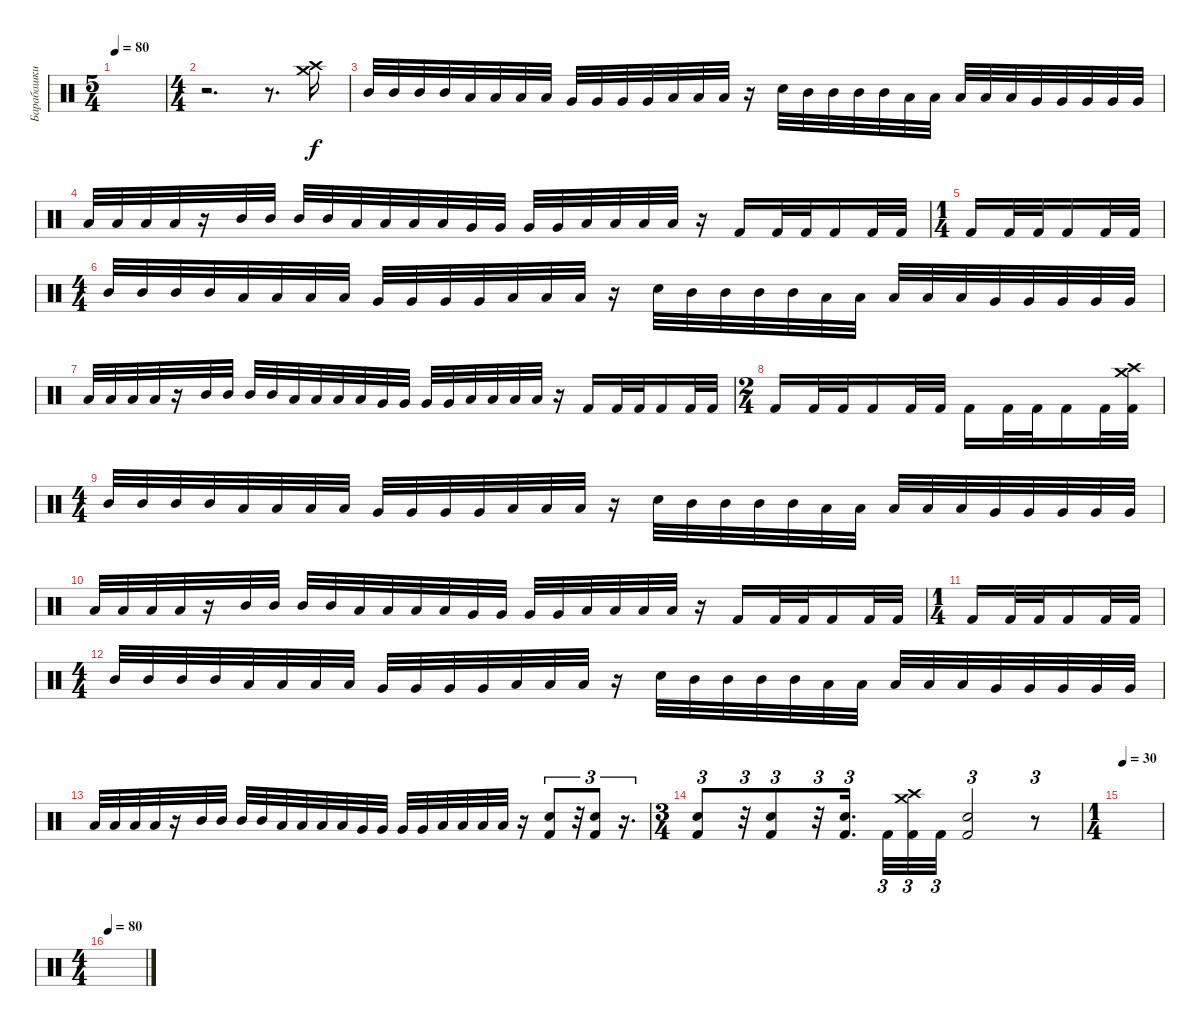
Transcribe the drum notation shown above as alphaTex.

\track ("Барабашки" "Барабашки") {instrument percussion}
\staff {score}
\articulation defaults
\ts (5 4)
\tempo 80
\clef neutral
\ks c
|
\ts (4 4)
r.2{d} r.8{d} ("Crash medium (hit)" "Crash high (hit)").16 |
"Mid Tom (hit)".32 "Mid Tom (hit)".32 "Mid Tom (hit)".32 "Mid Tom (hit)".32 "Low Tom (hit)".32 "Low Tom (hit)".32 "Low Tom (hit)".32 "Low Tom (hit)".32 "Very Low Tom (hit)".32 "Very Low Tom (hit)".32 "Very Low Tom (hit)".32 "Very Low Tom (hit)".32 "Low Floor Tom (hit)".32 "Low Floor Tom (hit)".32 "Low Floor Tom (hit)".32 r.16 "Snare (hit) 2".32 "Mid Tom (hit)".32 "Mid Tom (hit)".32 "Mid Tom (hit)".32 "Mid Tom (hit)".32 "Low Tom (hit)".32 "Low Tom (hit)".32 "Low Tom (hit)".32 "Low Tom (hit)".32 "Low Tom (hit)".32 "Very Low Tom (hit)".32 "Very Low Tom (hit)".32 "Very Low Tom (hit)".32 "Very Low Tom (hit)".32 "Very Low Tom (hit)".32 |
"Low Floor Tom (hit)".32 "Low Floor Tom (hit)".32 "Low Floor Tom (hit)".32 "Low Floor Tom (hit)".32 r.16 "Mid Tom (hit)".32 "Mid Tom (hit)".32 "Mid Tom (hit)".32 "Mid Tom (hit)".32 "Low Tom (hit)".32 "Low Tom (hit)".32 "Low Tom (hit)".32 "Low Tom (hit)".32 "Very Low Tom (hit)".32 "Very Low Tom (hit)".32 "Very Low Tom (hit)".32 "Very Low Tom (hit)".32 "Low Floor Tom (hit)".32 "Low Floor Tom (hit)".32 "Low Floor Tom (hit)".32 "Low Floor Tom (hit)".32 r.16 "Kick (hit) 2".16 "Kick (hit) 2".32 "Kick (hit) 2".32 "Kick (hit) 2".16 "Kick (hit) 2".32 "Kick (hit) 2".32 |
\ts (1 4)
"Kick (hit) 2".16 "Kick (hit) 2".32 "Kick (hit) 2".32 "Kick (hit) 2".16 "Kick (hit) 2".32 "Kick (hit) 2".32 |
\ts (4 4)
"Mid Tom (hit)".32 "Mid Tom (hit)".32 "Mid Tom (hit)".32 "Mid Tom (hit)".32 "Low Tom (hit)".32 "Low Tom (hit)".32 "Low Tom (hit)".32 "Low Tom (hit)".32 "Very Low Tom (hit)".32 "Very Low Tom (hit)".32 "Very Low Tom (hit)".32 "Very Low Tom (hit)".32 "Low Floor Tom (hit)".32 "Low Floor Tom (hit)".32 "Low Floor Tom (hit)".32 r.16 "Snare (hit) 2".32 "Mid Tom (hit)".32 "Mid Tom (hit)".32 "Mid Tom (hit)".32 "Mid Tom (hit)".32 "Low Tom (hit)".32 "Low Tom (hit)".32 "Low Tom (hit)".32 "Low Tom (hit)".32 "Low Tom (hit)".32 "Very Low Tom (hit)".32 "Very Low Tom (hit)".32 "Very Low Tom (hit)".32 "Very Low Tom (hit)".32 "Very Low Tom (hit)".32 |
"Low Floor Tom (hit)".32 "Low Floor Tom (hit)".32 "Low Floor Tom (hit)".32 "Low Floor Tom (hit)".32 r.16 "Mid Tom (hit)".32 "Mid Tom (hit)".32 "Mid Tom (hit)".32 "Mid Tom (hit)".32 "Low Tom (hit)".32 "Low Tom (hit)".32 "Low Tom (hit)".32 "Low Tom (hit)".32 "Very Low Tom (hit)".32 "Very Low Tom (hit)".32 "Very Low Tom (hit)".32 "Very Low Tom (hit)".32 "Low Floor Tom (hit)".32 "Low Floor Tom (hit)".32 "Low Floor Tom (hit)".32 "Low Floor Tom (hit)".32 r.16 "Kick (hit) 2".16 "Kick (hit) 2".32 "Kick (hit) 2".32 "Kick (hit) 2".16 "Kick (hit) 2".32 "Kick (hit) 2".32 |
\ts (2 4)
"Kick (hit) 2".16 "Kick (hit) 2".32 "Kick (hit) 2".32 "Kick (hit) 2".16 "Kick (hit) 2".32 "Kick (hit) 2".32 "Kick (hit) 2".16 "Kick (hit) 2".32 "Kick (hit) 2".32 "Kick (hit) 2".16 "Kick (hit) 2".32 ("Crash high (hit)" "Crash medium (hit)" "Kick (hit) 2").32 |
\ts (4 4)
"Mid Tom (hit)".32 "Mid Tom (hit)".32 "Mid Tom (hit)".32 "Mid Tom (hit)".32 "Low Tom (hit)".32 "Low Tom (hit)".32 "Low Tom (hit)".32 "Low Tom (hit)".32 "Very Low Tom (hit)".32 "Very Low Tom (hit)".32 "Very Low Tom (hit)".32 "Very Low Tom (hit)".32 "Low Floor Tom (hit)".32 "Low Floor Tom (hit)".32 "Low Floor Tom (hit)".32 r.16 "Snare (hit) 2".32 "Mid Tom (hit)".32 "Mid Tom (hit)".32 "Mid Tom (hit)".32 "Mid Tom (hit)".32 "Low Tom (hit)".32 "Low Tom (hit)".32 "Low Tom (hit)".32 "Low Tom (hit)".32 "Low Tom (hit)".32 "Very Low Tom (hit)".32 "Very Low Tom (hit)".32 "Very Low Tom (hit)".32 "Very Low Tom (hit)".32 "Very Low Tom (hit)".32 |
"Low Floor Tom (hit)".32 "Low Floor Tom (hit)".32 "Low Floor Tom (hit)".32 "Low Floor Tom (hit)".32 r.16 "Mid Tom (hit)".32 "Mid Tom (hit)".32 "Mid Tom (hit)".32 "Mid Tom (hit)".32 "Low Tom (hit)".32 "Low Tom (hit)".32 "Low Tom (hit)".32 "Low Tom (hit)".32 "Very Low Tom (hit)".32 "Very Low Tom (hit)".32 "Very Low Tom (hit)".32 "Very Low Tom (hit)".32 "Low Floor Tom (hit)".32 "Low Floor Tom (hit)".32 "Low Floor Tom (hit)".32 "Low Floor Tom (hit)".32 r.16 "Kick (hit) 2".16 "Kick (hit) 2".32 "Kick (hit) 2".32 "Kick (hit) 2".16 "Kick (hit) 2".32 "Kick (hit) 2".32 |
\ts (1 4)
"Kick (hit) 2".16 "Kick (hit) 2".32 "Kick (hit) 2".32 "Kick (hit) 2".16 "Kick (hit) 2".32 "Kick (hit) 2".32 |
\ts (4 4)
"Mid Tom (hit)".32 "Mid Tom (hit)".32 "Mid Tom (hit)".32 "Mid Tom (hit)".32 "Low Tom (hit)".32 "Low Tom (hit)".32 "Low Tom (hit)".32 "Low Tom (hit)".32 "Very Low Tom (hit)".32 "Very Low Tom (hit)".32 "Very Low Tom (hit)".32 "Very Low Tom (hit)".32 "Low Floor Tom (hit)".32 "Low Floor Tom (hit)".32 "Low Floor Tom (hit)".32 r.16 "Snare (hit) 2".32 "Mid Tom (hit)".32 "Mid Tom (hit)".32 "Mid Tom (hit)".32 "Mid Tom (hit)".32 "Low Tom (hit)".32 "Low Tom (hit)".32 "Low Tom (hit)".32 "Low Tom (hit)".32 "Low Tom (hit)".32 "Very Low Tom (hit)".32 "Very Low Tom (hit)".32 "Very Low Tom (hit)".32 "Very Low Tom (hit)".32 "Very Low Tom (hit)".32 |
"Low Floor Tom (hit)".32 "Low Floor Tom (hit)".32 "Low Floor Tom (hit)".32 "Low Floor Tom (hit)".32 r.16 "Mid Tom (hit)".32 "Mid Tom (hit)".32 "Mid Tom (hit)".32 "Mid Tom (hit)".32 "Low Tom (hit)".32 "Low Tom (hit)".32 "Low Tom (hit)".32 "Low Tom (hit)".32 "Very Low Tom (hit)".32 "Very Low Tom (hit)".32 "Very Low Tom (hit)".32 "Very Low Tom (hit)".32 "Low Floor Tom (hit)".32 "Low Floor Tom (hit)".32 "Low Floor Tom (hit)".32 "Low Floor Tom (hit)".32 r.16 ("Snare (hit) 2" "Kick (hit) 2").8{tu (3 2)} r.32{tu (3 2)} ("Snare (hit) 2" "Kick (hit) 2").8{tu (3 2)} r.16{d tu (3 2)} |
\ts (3 4)
("Snare (hit) 2" "Kick (hit) 2").8{tu (3 2)} r.32{tu (3 2)} ("Snare (hit) 2" "Kick (hit) 2").8{tu (3 2)} r.32{tu (3 2)} ("Snare (hit) 2" "Kick (hit) 2").16{d tu (3 2)} "Kick (hit) 2".32{tu (3 2)} ("Crash medium (hit)" "Crash high (hit)" "Kick (hit) 2").32{tu (3 2)} "Kick (hit) 2".32{tu (3 2)} ("Snare (hit) 2" "Kick (hit) 2").2{tu (3 2)} r.8{tu (3 2)} |
\ts (1 4)
\tempo 30
|
\ts (4 4)
\tempo 80
